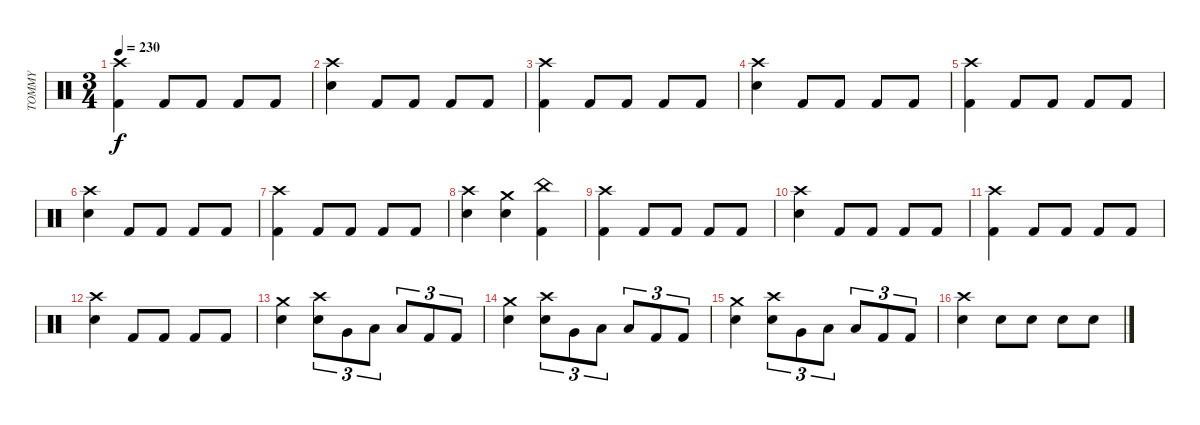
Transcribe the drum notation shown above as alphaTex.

\track ("TOMMY" "TOMMY") {instrument percussion}
\staff {score}
\articulation defaults
\ts (3 4)
\tempo 230
\clef neutral
\ks c
("Kick (hit) 2" "Crash high (hit)").4{dy f} "Kick (hit) 2".8 "Kick (hit) 2".8 "Kick (hit) 2".8 "Kick (hit) 2".8 |
("Snare (hit) 2" "Crash high (hit)").4 "Kick (hit) 2".8 "Kick (hit) 2".8 "Kick (hit) 2".8 "Kick (hit) 2".8 |
("Kick (hit) 2" "Crash high (hit)").4 "Kick (hit) 2".8 "Kick (hit) 2".8 "Kick (hit) 2".8 "Kick (hit) 2".8 |
("Snare (hit) 2" "Crash high (hit)").4 "Kick (hit) 2".8 "Kick (hit) 2".8 "Kick (hit) 2".8 "Kick (hit) 2".8 |
("Kick (hit) 2" "Crash high (hit)").4 "Kick (hit) 2".8 "Kick (hit) 2".8 "Kick (hit) 2".8 "Kick (hit) 2".8 |
("Snare (hit) 2" "Crash high (hit)").4 "Kick (hit) 2".8 "Kick (hit) 2".8 "Kick (hit) 2".8 "Kick (hit) 2".8 |
("Kick (hit) 2" "Crash high (hit)").4 "Kick (hit) 2".8 "Kick (hit) 2".8 "Kick (hit) 2".8 "Kick (hit) 2".8 |
("Snare (hit) 2" "Crash high (hit)").4 ("Snare (hit) 2" "Crash medium (hit)").4 ("Kick (hit) 2" "China (hit)").4 |
("Kick (hit) 2" "Crash high (hit)").4 "Kick (hit) 2".8 "Kick (hit) 2".8 "Kick (hit) 2".8 "Kick (hit) 2".8 |
("Snare (hit) 2" "Crash high (hit)").4 "Kick (hit) 2".8 "Kick (hit) 2".8 "Kick (hit) 2".8 "Kick (hit) 2".8 |
("Kick (hit) 2" "Crash high (hit)").4 "Kick (hit) 2".8 "Kick (hit) 2".8 "Kick (hit) 2".8 "Kick (hit) 2".8 |
("Snare (hit) 2" "Crash high (hit)").4 "Kick (hit) 2".8 "Kick (hit) 2".8 "Kick (hit) 2".8 "Kick (hit) 2".8 |
("Snare (hit) 2" "Crash medium (hit)").4 ("Snare (hit) 2" "Crash high (hit)").8{tu (3 2)} "Very Low Tom (hit)".8{tu (3 2)} "Low Floor Tom (hit)".8{tu (3 2)} "Low Floor Tom (hit)".8{tu (3 2)} "Kick (hit) 2".8{tu (3 2)} "Kick (hit) 2".8{tu (3 2)} |
("Snare (hit) 2" "Crash medium (hit)").4 ("Snare (hit) 2" "Crash high (hit)").8{tu (3 2)} "Very Low Tom (hit)".8{tu (3 2)} "Low Floor Tom (hit)".8{tu (3 2)} "Low Floor Tom (hit)".8{tu (3 2)} "Kick (hit) 2".8{tu (3 2)} "Kick (hit) 2".8{tu (3 2)} |
("Snare (hit) 2" "Crash medium (hit)").4 ("Snare (hit) 2" "Crash high (hit)").8{tu (3 2)} "Very Low Tom (hit)".8{tu (3 2)} "Low Floor Tom (hit)".8{tu (3 2)} "Low Floor Tom (hit)".8{tu (3 2)} "Kick (hit) 2".8{tu (3 2)} "Kick (hit) 2".8{tu (3 2)} |
("Snare (hit) 2" "Crash high (hit)").4 "Snare (hit) 2".8 "Snare (hit) 2".8 "Snare (hit) 2".8 "Snare (hit) 2".8
